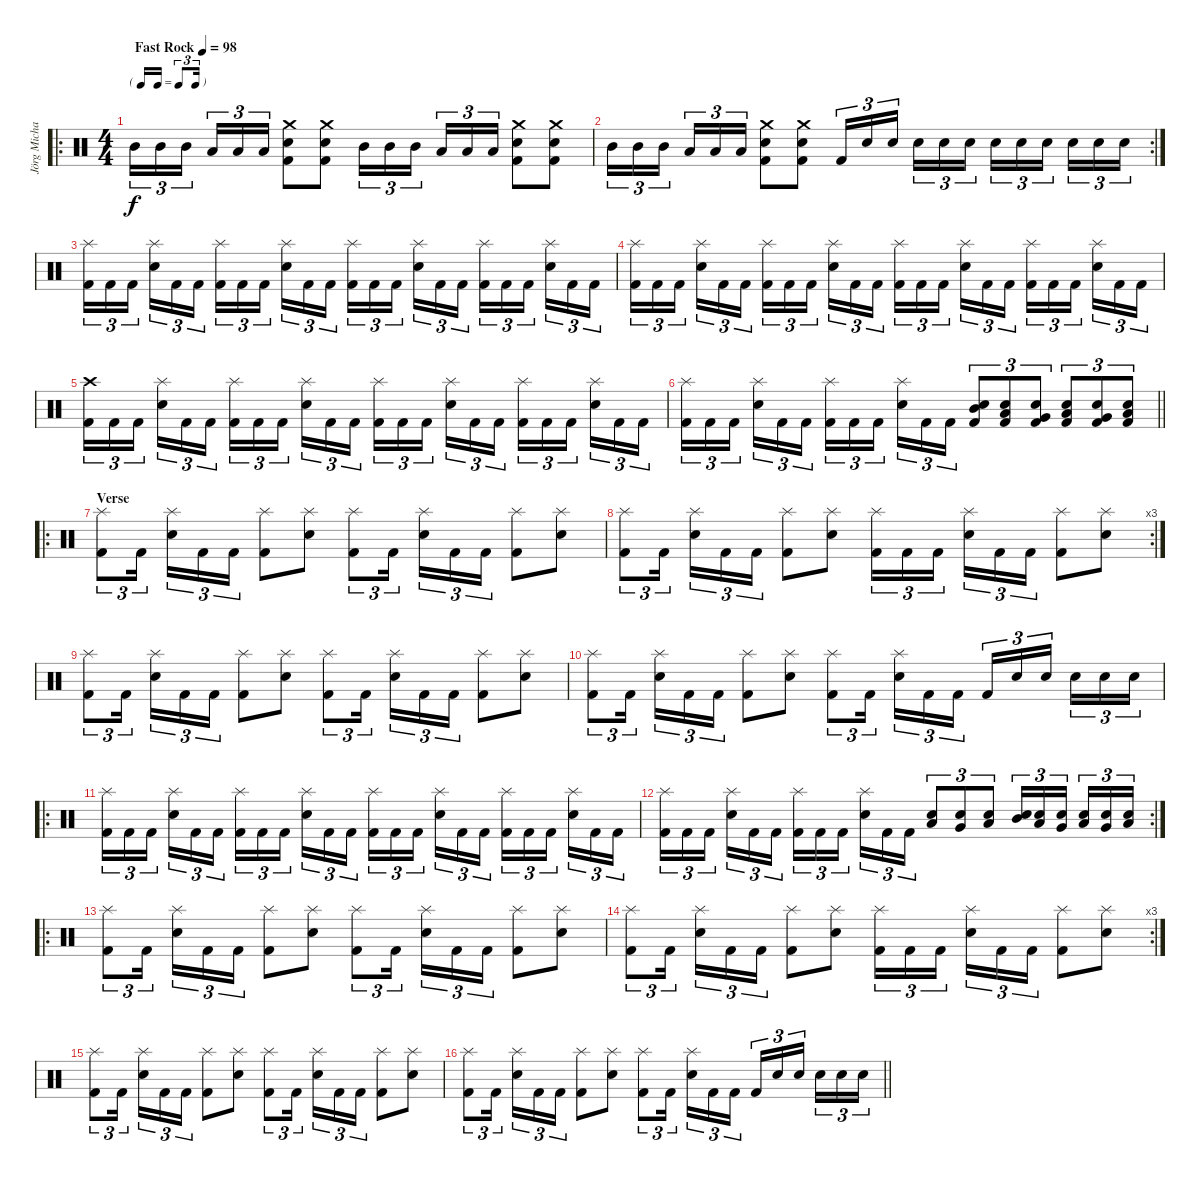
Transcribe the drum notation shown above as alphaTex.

\track ("Jörg Michael" "Jörg Micha") {instrument percussion}
\staff {score}
\articulation defaults
\ro
\ts (4 4)
\tf triplet16th
\tempo (98 "Fast Rock")
\clef neutral
\ks c "Mid Tom (hit)".16{tu (3 2) dy f} "Mid Tom (hit)".16{tu (3 2)} "Mid Tom (hit)".16{tu (3 2) beam splitsecondary} "Low Tom (hit)".16{tu (3 2)} "Low Tom (hit)".16{tu (3 2)} "Low Tom (hit)".16{tu (3 2)}
("Crash medium (hit)" "Snare (hit) 2" "Kick (hit) 2").8 ("Crash medium (hit)" "Snare (hit) 2" "Kick (hit) 2").8 "Mid Tom (hit)".16{tu (3 2)} "Mid Tom (hit)".16{tu (3 2)} "Mid Tom (hit)".16{tu (3 2) beam splitsecondary} "Low Tom (hit)".16{tu (3 2)} "Low Tom (hit)".16{tu (3 2)} "Low Tom (hit)".16{tu (3 2)} ("Crash medium (hit)" "Snare (hit) 2" "Kick (hit) 2").8 ("Crash medium (hit)" "Snare (hit) 2" "Kick (hit) 2").8 |
\rc 2 "Mid Tom (hit)".16{tu (3 2)} "Mid Tom (hit)".16{tu (3 2)} "Mid Tom (hit)".16{tu (3 2) beam splitsecondary} "Low Tom (hit)".16{tu (3 2)} "Low Tom (hit)".16{tu (3 2)} "Low Tom (hit)".16{tu (3 2)}
("Crash medium (hit)" "Snare (hit) 2" "Kick (hit) 2").8 ("Crash medium (hit)" "Snare (hit) 2" "Kick (hit) 2").8 "Kick (hit) 2".16{tu (3 2)} "Snare (hit) 2".16{tu (3 2)} "Snare (hit) 2".16{tu (3 2) beam splitsecondary} "Snare (hit) 2".16{tu (3 2)} "Snare (hit) 2".16{tu (3 2)} "Snare (hit) 2".16{tu (3 2)} "Snare (hit) 2".16{tu (3 2)} "Snare (hit) 2".16{tu (3 2)} "Snare (hit) 2".16{tu (3 2) beam splitsecondary} "Snare (hit) 2".16{tu (3 2)} "Snare (hit) 2".16{tu (3 2)} "Snare (hit) 2".16{tu (3 2)} |
("Splash (hit)" "Kick (hit) 2").16{tu (3 2)} "Kick (hit) 2".16{tu (3 2)} "Kick (hit) 2".16{tu (3 2) beam splitsecondary} ("Splash (hit)" "Snare (hit) 2").16{tu (3 2)} "Kick (hit) 2".16{tu (3 2)} "Kick (hit) 2".16{tu (3 2)} ("Splash (hit)" "Kick (hit) 2").16{tu (3 2)} "Kick (hit) 2".16{tu (3 2)} "Kick (hit) 2".16{tu (3 2) beam splitsecondary} ("Splash (hit)" "Snare (hit) 2").16{tu (3 2)} "Kick (hit) 2".16{tu (3 2)} "Kick (hit) 2".16{tu (3 2)} ("Splash (hit)" "Kick (hit) 2").16{tu (3 2)} "Kick (hit) 2".16{tu (3 2)} "Kick (hit) 2".16{tu (3 2) beam splitsecondary} ("Splash (hit)" "Snare (hit) 2").16{tu (3 2)} "Kick (hit) 2".16{tu (3 2)} "Kick (hit) 2".16{tu (3 2)} ("Splash (hit)" "Kick (hit) 2").16{tu (3 2)} "Kick (hit) 2".16{tu (3 2)} "Kick (hit) 2".16{tu (3 2) beam splitsecondary} ("Splash (hit)" "Snare (hit) 2").16{tu (3 2)} "Kick (hit) 2".16{tu (3 2)} "Kick (hit) 2".16{tu (3 2)} |
("Splash (hit)" "Kick (hit) 2").16{tu (3 2)} "Kick (hit) 2".16{tu (3 2)} "Kick (hit) 2".16{tu (3 2) beam splitsecondary} ("Splash (hit)" "Snare (hit) 2").16{tu (3 2)} "Kick (hit) 2".16{tu (3 2)} "Kick (hit) 2".16{tu (3 2)} ("Splash (hit)" "Kick (hit) 2").16{tu (3 2)} "Kick (hit) 2".16{tu (3 2)} "Kick (hit) 2".16{tu (3 2) beam splitsecondary} ("Splash (hit)" "Snare (hit) 2").16{tu (3 2)} "Kick (hit) 2".16{tu (3 2)} "Kick (hit) 2".16{tu (3 2)} ("Splash (hit)" "Kick (hit) 2").16{tu (3 2)} "Kick (hit) 2".16{tu (3 2)} "Kick (hit) 2".16{tu (3 2) beam splitsecondary} ("Splash (hit)" "Snare (hit) 2").16{tu (3 2)} "Kick (hit) 2".16{tu (3 2)} "Kick (hit) 2".16{tu (3 2)} ("Splash (hit)" "Kick (hit) 2").16{tu (3 2)} "Kick (hit) 2".16{tu (3 2)} "Kick (hit) 2".16{tu (3 2) beam splitsecondary} ("Splash (hit)" "Snare (hit) 2").16{tu (3 2)} "Kick (hit) 2".16{tu (3 2)} "Kick (hit) 2".16{tu (3 2)} |
("Crash high (hit)" "Kick (hit) 2").16{tu (3 2)} "Kick (hit) 2".16{tu (3 2)} "Kick (hit) 2".16{tu (3 2) beam splitsecondary} ("Splash (hit)" "Snare (hit) 2").16{tu (3 2)} "Kick (hit) 2".16{tu (3 2)} "Kick (hit) 2".16{tu (3 2)} ("Splash (hit)" "Kick (hit) 2").16{tu (3 2)} "Kick (hit) 2".16{tu (3 2)} "Kick (hit) 2".16{tu (3 2) beam splitsecondary} ("Splash (hit)" "Snare (hit) 2").16{tu (3 2)} "Kick (hit) 2".16{tu (3 2)} "Kick (hit) 2".16{tu (3 2)} ("Splash (hit)" "Kick (hit) 2").16{tu (3 2)} "Kick (hit) 2".16{tu (3 2)} "Kick (hit) 2".16{tu (3 2) beam splitsecondary} ("Splash (hit)" "Snare (hit) 2").16{tu (3 2)} "Kick (hit) 2".16{tu (3 2)} "Kick (hit) 2".16{tu (3 2)} ("Splash (hit)" "Kick (hit) 2").16{tu (3 2)} "Kick (hit) 2".16{tu (3 2)} "Kick (hit) 2".16{tu (3 2) beam splitsecondary} ("Splash (hit)" "Snare (hit) 2").16{tu (3 2)} "Kick (hit) 2".16{tu (3 2)} "Kick (hit) 2".16{tu (3 2)} |
\barLineRight lightlight
("Splash (hit)" "Kick (hit) 2").16{tu (3 2)} "Kick (hit) 2".16{tu (3 2)} "Kick (hit) 2".16{tu (3 2) beam splitsecondary} ("Splash (hit)" "Snare (hit) 2").16{tu (3 2)} "Kick (hit) 2".16{tu (3 2)} "Kick (hit) 2".16{tu (3 2)} ("Splash (hit)" "Kick (hit) 2").16{tu (3 2)} "Kick (hit) 2".16{tu (3 2)} "Kick (hit) 2".16{tu (3 2) beam splitsecondary} ("Splash (hit)" "Snare (hit) 2").16{tu (3 2)} "Kick (hit) 2".16{tu (3 2)} "Kick (hit) 2".16{tu (3 2)} ("Snare (hit) 2" "Mid Tom (hit)" "Kick (hit) 2").8{tu (3 2)} ("Snare (hit) 2" "Low Tom (hit)" "Kick (hit) 2").8{tu (3 2)} ("Snare (hit) 2" "Very Low Tom (hit)" "Kick (hit) 2").8{tu (3 2)} ("Snare (hit) 2" "Low Tom (hit)" "Kick (hit) 2").8{tu (3 2)} ("Snare (hit) 2" "Very Low Tom (hit)" "Kick (hit) 2").8{tu (3 2)} ("Snare (hit) 2" "Low Floor Tom (hit)" "Kick (hit) 2").8{tu (3 2)} |
\ro
\section ("" "Verse")
("Splash (hit)" "Kick (hit) 2").8{tu (3 2)} "Kick (hit) 2".16{tu (3 2) beam splitsecondary} ("Splash (hit)" "Snare (hit) 2").16{tu (3 2)} "Kick (hit) 2".16{tu (3 2)} "Kick (hit) 2".16{tu (3 2)} ("Splash (hit)" "Kick (hit) 2").8 ("Splash (hit)" "Snare (hit) 2").8 ("Splash (hit)" "Kick (hit) 2").8{tu (3 2)} "Kick (hit) 2".16{tu (3 2) beam splitsecondary} ("Splash (hit)" "Snare (hit) 2").16{tu (3 2)} "Kick (hit) 2".16{tu (3 2)} "Kick (hit) 2".16{tu (3 2)} ("Splash (hit)" "Kick (hit) 2").8 ("Splash (hit)" "Snare (hit) 2").8 |
\rc 3
("Splash (hit)" "Kick (hit) 2").8{tu (3 2)} "Kick (hit) 2".16{tu (3 2) beam splitsecondary} ("Splash (hit)" "Snare (hit) 2").16{tu (3 2)} "Kick (hit) 2".16{tu (3 2)} "Kick (hit) 2".16{tu (3 2)} ("Splash (hit)" "Kick (hit) 2").8 ("Splash (hit)" "Snare (hit) 2").8 ("Splash (hit)" "Kick (hit) 2").16{tu (3 2)} "Kick (hit) 2".16{tu (3 2)} "Kick (hit) 2".16{tu (3 2) beam splitsecondary} ("Splash (hit)" "Snare (hit) 2").16{tu (3 2)} "Kick (hit) 2".16{tu (3 2)} "Kick (hit) 2".16{tu (3 2)} ("Splash (hit)" "Kick (hit) 2").8 ("Splash (hit)" "Snare (hit) 2").8 |
("Splash (hit)" "Kick (hit) 2").8{tu (3 2)} "Kick (hit) 2".16{tu (3 2) beam splitsecondary} ("Splash (hit)" "Snare (hit) 2").16{tu (3 2)} "Kick (hit) 2".16{tu (3 2)} "Kick (hit) 2".16{tu (3 2)} ("Splash (hit)" "Kick (hit) 2").8 ("Splash (hit)" "Snare (hit) 2").8 ("Splash (hit)" "Kick (hit) 2").8{tu (3 2)} "Kick (hit) 2".16{tu (3 2) beam splitsecondary} ("Splash (hit)" "Snare (hit) 2").16{tu (3 2)} "Kick (hit) 2".16{tu (3 2)} "Kick (hit) 2".16{tu (3 2)} ("Splash (hit)" "Kick (hit) 2").8 ("Splash (hit)" "Snare (hit) 2").8 |
("Splash (hit)" "Kick (hit) 2").8{tu (3 2)} "Kick (hit) 2".16{tu (3 2) beam splitsecondary} ("Splash (hit)" "Snare (hit) 2").16{tu (3 2)} "Kick (hit) 2".16{tu (3 2)} "Kick (hit) 2".16{tu (3 2)} ("Splash (hit)" "Kick (hit) 2").8 ("Splash (hit)" "Snare (hit) 2").8 ("Splash (hit)" "Kick (hit) 2").8{tu (3 2)} "Kick (hit) 2".16{tu (3 2) beam splitsecondary} ("Splash (hit)" "Snare (hit) 2").16{tu (3 2)} "Kick (hit) 2".16{tu (3 2)} "Kick (hit) 2".16{tu (3 2)} "Kick (hit) 2".16{tu (3 2)} "Snare (hit) 2".16{tu (3 2)} "Snare (hit) 2".16{tu (3 2) beam splitsecondary} "Snare (hit) 2".16{tu (3 2)} "Snare (hit) 2".16{tu (3 2)} "Snare (hit) 2".16{tu (3 2)} |
\ro
("Splash (hit)" "Kick (hit) 2").16{tu (3 2)} "Kick (hit) 2".16{tu (3 2)} "Kick (hit) 2".16{tu (3 2) beam splitsecondary} ("Splash (hit)" "Snare (hit) 2").16{tu (3 2)} "Kick (hit) 2".16{tu (3 2)} "Kick (hit) 2".16{tu (3 2)} ("Splash (hit)" "Kick (hit) 2").16{tu (3 2)} "Kick (hit) 2".16{tu (3 2)} "Kick (hit) 2".16{tu (3 2) beam splitsecondary} ("Splash (hit)" "Snare (hit) 2").16{tu (3 2)} "Kick (hit) 2".16{tu (3 2)} "Kick (hit) 2".16{tu (3 2)} ("Splash (hit)" "Kick (hit) 2").16{tu (3 2)} "Kick (hit) 2".16{tu (3 2)} "Kick (hit) 2".16{tu (3 2) beam splitsecondary} ("Splash (hit)" "Snare (hit) 2").16{tu (3 2)} "Kick (hit) 2".16{tu (3 2)} "Kick (hit) 2".16{tu (3 2)} ("Splash (hit)" "Kick (hit) 2").16{tu (3 2)} "Kick (hit) 2".16{tu (3 2)} "Kick (hit) 2".16{tu (3 2) beam splitsecondary} ("Splash (hit)" "Snare (hit) 2").16{tu (3 2)} "Kick (hit) 2".16{tu (3 2)} "Kick (hit) 2".16{tu (3 2)} |
\rc 2
("Splash (hit)" "Kick (hit) 2").16{tu (3 2)} "Kick (hit) 2".16{tu (3 2)} "Kick (hit) 2".16{tu (3 2) beam splitsecondary} ("Splash (hit)" "Snare (hit) 2").16{tu (3 2)} "Kick (hit) 2".16{tu (3 2)} "Kick (hit) 2".16{tu (3 2)} ("Splash (hit)" "Kick (hit) 2").16{tu (3 2)} "Kick (hit) 2".16{tu (3 2)} "Kick (hit) 2".16{tu (3 2) beam splitsecondary} ("Splash (hit)" "Snare (hit) 2").16{tu (3 2)} "Kick (hit) 2".16{tu (3 2)} "Kick (hit) 2".16{tu (3 2)} ("Low Tom (hit)" "Snare (hit) 2").8{tu (3 2)} ("Very Low Tom (hit)" "Snare (hit) 2").8{tu (3 2)} ("Low Floor Tom (hit)" "Snare (hit) 2").8{tu (3 2)} ("Mid Tom (hit)" "Snare (hit) 2").16{tu (3 2)} ("Low Tom (hit)" "Snare (hit) 2").16{tu (3 2)} ("Very Low Tom (hit)" "Snare (hit) 2").16{tu (3 2) beam splitsecondary} ("Low Floor Tom (hit)" "Snare (hit) 2").16{tu (3 2)} ("Very Low Tom (hit)" "Snare (hit) 2").16{tu (3 2)} ("Low Tom (hit)" "Snare (hit) 2").16{tu (3 2)} |
\ro
("Splash (hit)" "Kick (hit) 2").8{tu (3 2)} "Kick (hit) 2".16{tu (3 2) beam splitsecondary} ("Splash (hit)" "Snare (hit) 2").16{tu (3 2)} "Kick (hit) 2".16{tu (3 2)} "Kick (hit) 2".16{tu (3 2)} ("Splash (hit)" "Kick (hit) 2").8 ("Splash (hit)" "Snare (hit) 2").8 ("Splash (hit)" "Kick (hit) 2").8{tu (3 2)} "Kick (hit) 2".16{tu (3 2) beam splitsecondary} ("Splash (hit)" "Snare (hit) 2").16{tu (3 2)} "Kick (hit) 2".16{tu (3 2)} "Kick (hit) 2".16{tu (3 2)} ("Splash (hit)" "Kick (hit) 2").8 ("Splash (hit)" "Snare (hit) 2").8 |
\rc 3
("Splash (hit)" "Kick (hit) 2").8{tu (3 2)} "Kick (hit) 2".16{tu (3 2) beam splitsecondary} ("Splash (hit)" "Snare (hit) 2").16{tu (3 2)} "Kick (hit) 2".16{tu (3 2)} "Kick (hit) 2".16{tu (3 2)} ("Splash (hit)" "Kick (hit) 2").8 ("Splash (hit)" "Snare (hit) 2").8 ("Splash (hit)" "Kick (hit) 2").16{tu (3 2)} "Kick (hit) 2".16{tu (3 2)} "Kick (hit) 2".16{tu (3 2) beam splitsecondary} ("Splash (hit)" "Snare (hit) 2").16{tu (3 2)} "Kick (hit) 2".16{tu (3 2)} "Kick (hit) 2".16{tu (3 2)} ("Splash (hit)" "Kick (hit) 2").8 ("Splash (hit)" "Snare (hit) 2").8 |
("Splash (hit)" "Kick (hit) 2").8{tu (3 2)} "Kick (hit) 2".16{tu (3 2) beam splitsecondary} ("Splash (hit)" "Snare (hit) 2").16{tu (3 2)} "Kick (hit) 2".16{tu (3 2)} "Kick (hit) 2".16{tu (3 2)} ("Splash (hit)" "Kick (hit) 2").8 ("Splash (hit)" "Snare (hit) 2").8 ("Splash (hit)" "Kick (hit) 2").8{tu (3 2)} "Kick (hit) 2".16{tu (3 2) beam splitsecondary} ("Splash (hit)" "Snare (hit) 2").16{tu (3 2)} "Kick (hit) 2".16{tu (3 2)} "Kick (hit) 2".16{tu (3 2)} ("Splash (hit)" "Kick (hit) 2").8 ("Splash (hit)" "Snare (hit) 2").8 |
\barLineRight lightlight
("Splash (hit)" "Kick (hit) 2").8{tu (3 2)} "Kick (hit) 2".16{tu (3 2) beam splitsecondary} ("Splash (hit)" "Snare (hit) 2").16{tu (3 2)} "Kick (hit) 2".16{tu (3 2)} "Kick (hit) 2".16{tu (3 2)} ("Splash (hit)" "Kick (hit) 2").8 ("Splash (hit)" "Snare (hit) 2").8 ("Splash (hit)" "Kick (hit) 2").8{tu (3 2)} "Kick (hit) 2".16{tu (3 2) beam splitsecondary} ("Splash (hit)" "Snare (hit) 2").16{tu (3 2)} "Kick (hit) 2".16{tu (3 2)} "Kick (hit) 2".16{tu (3 2)} "Kick (hit) 2".16{tu (3 2)} "Snare (hit) 2".16{tu (3 2)} "Snare (hit) 2".16{tu (3 2) beam splitsecondary} "Snare (hit) 2".16{tu (3 2)} "Snare (hit) 2".16{tu (3 2)} "Snare (hit) 2".16{tu (3 2)}
